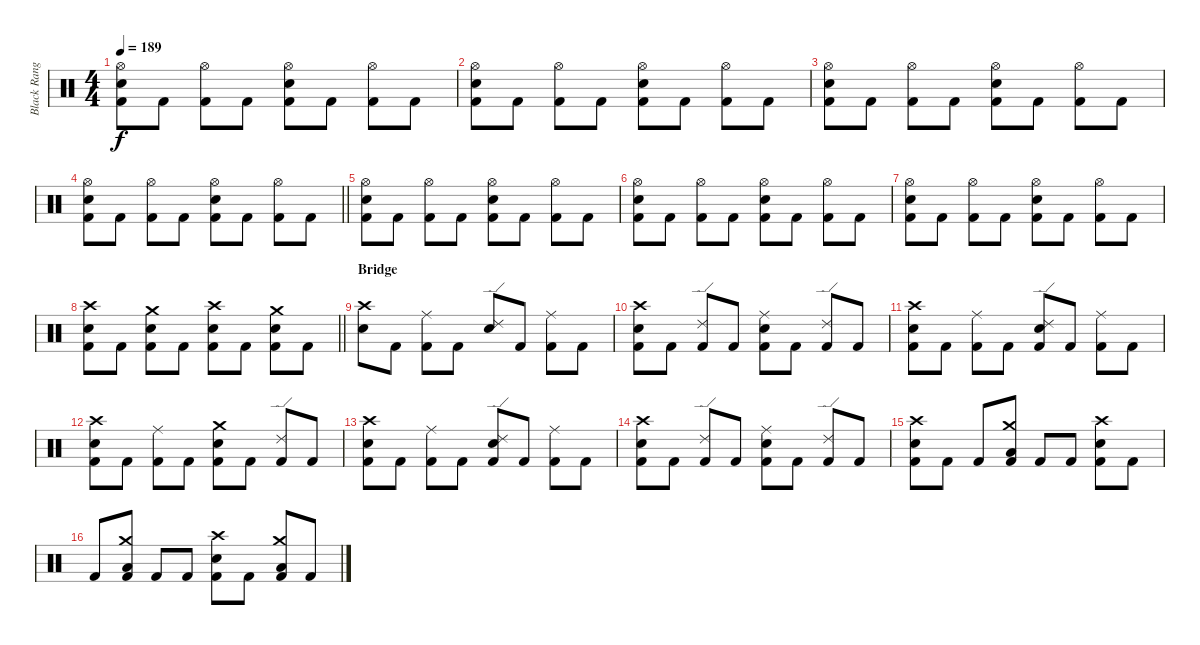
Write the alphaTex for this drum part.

\track ("Black Ranger (Drums)" "Black Rang") {instrument percussion}
\staff {score}
\articulation defaults
\ts (4 4)
\tempo 189
\clef neutral
\ks c
("Kick (hit) 2" "Snare (hit) 2" "Hi-Hat (open)").8{dy f} "Kick (hit) 2".8 ("Kick (hit) 2" "Hi-Hat (open)").8 "Kick (hit) 2".8 ("Kick (hit) 2" "Snare (hit) 2" "Hi-Hat (open)").8 "Kick (hit) 2".8 ("Kick (hit) 2" "Hi-Hat (open)").8 "Kick (hit) 2".8 |
("Kick (hit) 2" "Snare (hit) 2" "Hi-Hat (open)").8 "Kick (hit) 2".8 ("Kick (hit) 2" "Hi-Hat (open)").8 "Kick (hit) 2".8 ("Kick (hit) 2" "Snare (hit) 2" "Hi-Hat (open)").8 "Kick (hit) 2".8 ("Kick (hit) 2" "Hi-Hat (open)").8 "Kick (hit) 2".8 |
("Kick (hit) 2" "Snare (hit) 2" "Hi-Hat (open)").8 "Kick (hit) 2".8 ("Kick (hit) 2" "Hi-Hat (open)").8 "Kick (hit) 2".8 ("Kick (hit) 2" "Snare (hit) 2" "Hi-Hat (open)").8 "Kick (hit) 2".8 ("Kick (hit) 2" "Hi-Hat (open)").8 "Kick (hit) 2".8 |
\barLineRight lightlight
("Kick (hit) 2" "Snare (hit) 2" "Hi-Hat (open)").8 "Kick (hit) 2".8 ("Kick (hit) 2" "Hi-Hat (open)").8 "Kick (hit) 2".8 ("Kick (hit) 2" "Snare (hit) 2" "Hi-Hat (open)").8 "Kick (hit) 2".8 ("Kick (hit) 2" "Hi-Hat (open)").8 "Kick (hit) 2".8 |
("Kick (hit) 2" "Snare (hit) 2" "Hi-Hat (open)").8 "Kick (hit) 2".8 ("Kick (hit) 2" "Hi-Hat (open)").8 "Kick (hit) 2".8 ("Kick (hit) 2" "Snare (hit) 2" "Hi-Hat (open)").8 "Kick (hit) 2".8 ("Kick (hit) 2" "Hi-Hat (open)").8 "Kick (hit) 2".8 |
("Kick (hit) 2" "Snare (hit) 2" "Hi-Hat (open)").8 "Kick (hit) 2".8 ("Kick (hit) 2" "Hi-Hat (open)").8 "Kick (hit) 2".8 ("Kick (hit) 2" "Snare (hit) 2" "Hi-Hat (open)").8 "Kick (hit) 2".8 ("Kick (hit) 2" "Hi-Hat (open)").8 "Kick (hit) 2".8 |
("Kick (hit) 2" "Snare (hit) 2" "Hi-Hat (open)").8 "Kick (hit) 2".8 ("Kick (hit) 2" "Hi-Hat (open)").8 "Kick (hit) 2".8 ("Kick (hit) 2" "Snare (hit) 2" "Hi-Hat (open)").8 "Kick (hit) 2".8 ("Kick (hit) 2" "Hi-Hat (open)").8 "Kick (hit) 2".8 |
\barLineRight lightlight
("Kick (hit) 2" "Crash high (hit)" "Snare (hit) 2").8 "Kick (hit) 2".8 ("Kick (hit) 2" "Crash medium (hit)" "Snare (hit) 2").8 "Kick (hit) 2".8 ("Kick (hit) 2" "Crash high (hit)" "Snare (hit) 2").8 "Kick (hit) 2".8 ("Kick (hit) 2" "Crash medium (hit)" "Snare (hit) 2").8 "Kick (hit) 2".8 |
\section ("" "Bridge")
("Snare (hit) 2" "Crash high (hit)").8 "Kick (hit) 2".8 ("Kick (hit) 2" "Ride (middle)").8 "Kick (hit) 2".8 ("Snare (hit) 2" "Ride (edge) 2").8 "Kick (hit) 2".8 ("Kick (hit) 2" "Ride (middle)").8 "Kick (hit) 2".8 |
("Kick (hit) 2" "Snare (hit) 2" "Crash high (hit)").8 "Kick (hit) 2".8 ("Kick (hit) 2" "Ride (edge) 2").8 "Kick (hit) 2".8 ("Kick (hit) 2" "Snare (hit) 2" "Ride (middle)").8 "Kick (hit) 2".8 ("Kick (hit) 2" "Ride (edge) 2").8 "Kick (hit) 2".8 |
("Kick (hit) 2" "Snare (hit) 2" "Crash high (hit)").8 "Kick (hit) 2".8 ("Kick (hit) 2" "Ride (middle)").8 "Kick (hit) 2".8 ("Kick (hit) 2" "Snare (hit) 2" "Ride (edge) 2").8 "Kick (hit) 2".8 ("Kick (hit) 2" "Ride (middle)").8 "Kick (hit) 2".8 |
("Kick (hit) 2" "Snare (hit) 2" "Crash high (hit)").8 "Kick (hit) 2".8 ("Kick (hit) 2" "Ride (middle)").8 "Kick (hit) 2".8 ("Kick (hit) 2" "Snare (hit) 2" "Crash medium (hit)").8 "Kick (hit) 2".8 ("Kick (hit) 2" "Ride (edge) 2").8 "Kick (hit) 2".8 |
("Kick (hit) 2" "Snare (hit) 2" "Crash high (hit)").8 "Kick (hit) 2".8 ("Kick (hit) 2" "Ride (middle)").8 "Kick (hit) 2".8 ("Kick (hit) 2" "Snare (hit) 2" "Ride (edge) 2").8 "Kick (hit) 2".8 ("Kick (hit) 2" "Ride (middle)").8 "Kick (hit) 2".8 |
("Kick (hit) 2" "Snare (hit) 2" "Crash high (hit)").8 "Kick (hit) 2".8 ("Kick (hit) 2" "Ride (edge) 2").8 "Kick (hit) 2".8 ("Kick (hit) 2" "Snare (hit) 2" "Ride (middle)").8 "Kick (hit) 2".8 ("Kick (hit) 2" "Ride (edge) 2").8 "Kick (hit) 2".8 |
("Kick (hit) 2" "Crash high (hit)" "Snare (hit) 2").8 "Kick (hit) 2".8 "Kick (hit) 2".8 ("Kick (hit) 2" "Crash medium (hit)" "Low Tom (hit)").8 "Kick (hit) 2".8 "Kick (hit) 2".8 ("Kick (hit) 2" "Crash high (hit)" "Snare (hit) 2").8 "Kick (hit) 2".8 |
"Kick (hit) 2".8 ("Kick (hit) 2" "Crash medium (hit)" "Low Tom (hit)").8 "Kick (hit) 2".8 "Kick (hit) 2".8 ("Kick (hit) 2" "Crash high (hit)" "Snare (hit) 2").8 "Kick (hit) 2".8 ("Kick (hit) 2" "Crash medium (hit)" "Low Tom (hit)").8 "Kick (hit) 2".8
